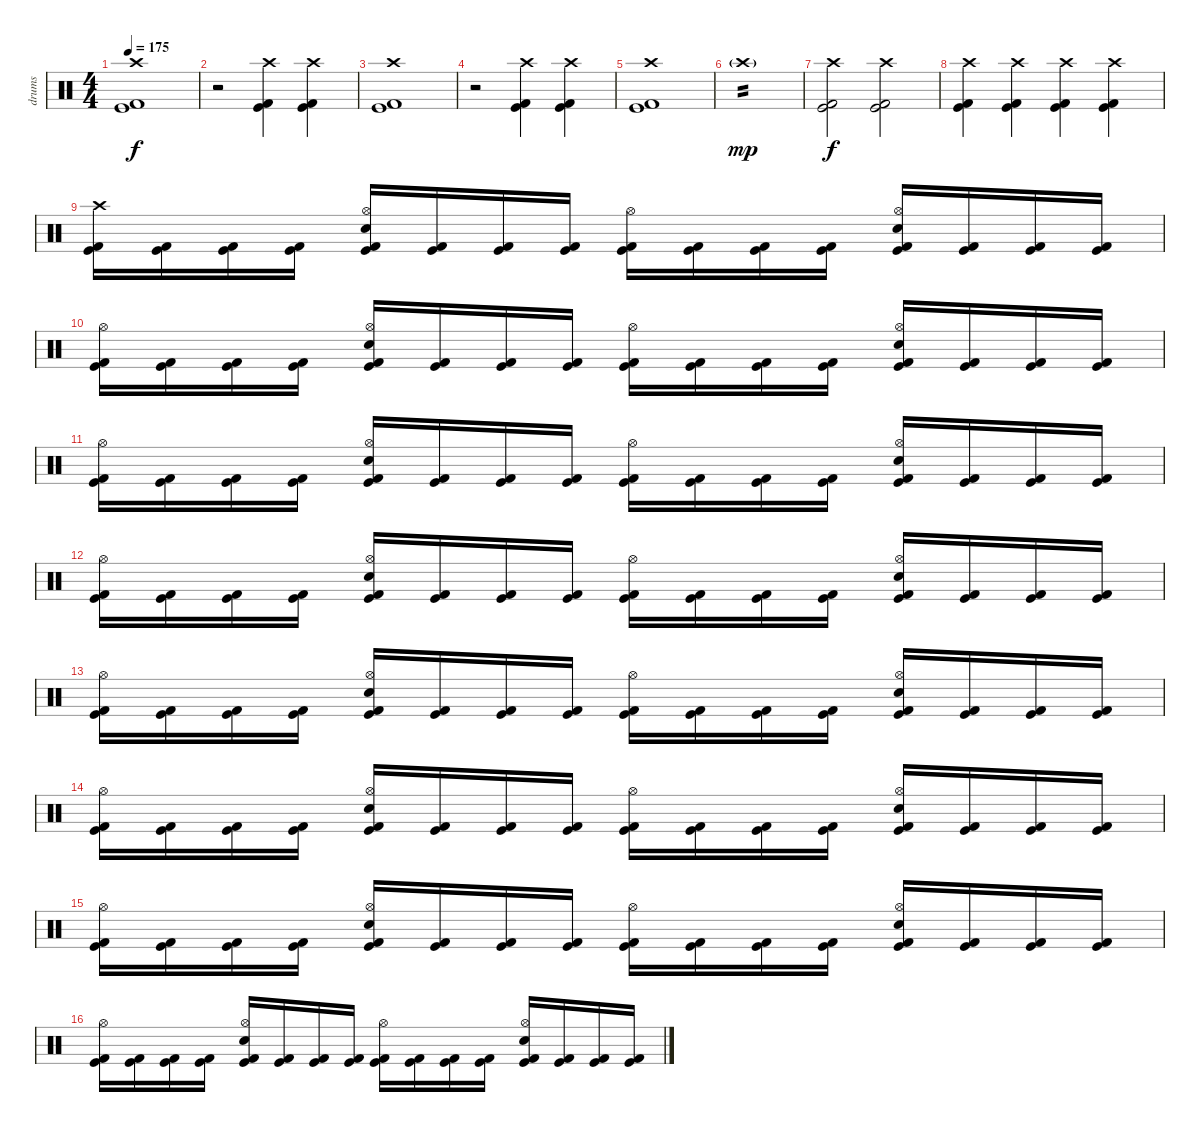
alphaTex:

\track ("drums" "drums") {instrument percussion}
\staff {score}
\articulation defaults
\ts (4 4)
\tempo 175
\clef neutral
\ks c
("Crash high (hit)" "Kick (hit)" "Kick (hit) 2").1{dy f} |
r.2 ("Crash high (hit)" "Kick (hit)" "Kick (hit) 2").4 ("Crash high (hit)" "Kick (hit)" "Kick (hit) 2").4 |
("Crash high (hit)" "Kick (hit)" "Kick (hit) 2").1 |
r.2 ("Crash high (hit)" "Kick (hit)" "Kick (hit) 2").4 ("Crash high (hit)" "Kick (hit)" "Kick (hit) 2").4 |
("Crash high (hit)" "Kick (hit)" "Kick (hit) 2").1 |
"Crash high (hit)"{g}.1{tp 2 dy mp} |
("Crash high (hit)" "Kick (hit)" "Kick (hit) 2").2{dy f} ("Crash high (hit)" "Kick (hit)" "Kick (hit) 2").2 |
("Crash high (hit)" "Kick (hit)" "Kick (hit) 2").4 ("Crash high (hit)" "Kick (hit)" "Kick (hit) 2").4 ("Crash high (hit)" "Kick (hit)" "Kick (hit) 2").4 ("Crash high (hit)" "Kick (hit)" "Kick (hit) 2").4 |
("Crash high (hit)" "Kick (hit)" "Kick (hit) 2").16 ("Kick (hit)" "Kick (hit) 2").16 ("Kick (hit)" "Kick (hit) 2").16 ("Kick (hit)" "Kick (hit) 2").16 ("Hi-Hat (open)" "Electric Snare (hit)" "Kick (hit)" "Kick (hit) 2").16 ("Kick (hit)" "Kick (hit) 2").16 ("Kick (hit)" "Kick (hit) 2").16 ("Kick (hit)" "Kick (hit) 2").16 ("Hi-Hat (open)" "Kick (hit)" "Kick (hit) 2").16 ("Kick (hit)" "Kick (hit) 2").16 ("Kick (hit)" "Kick (hit) 2").16 ("Kick (hit)" "Kick (hit) 2").16 ("Hi-Hat (open)" "Electric Snare (hit)" "Kick (hit)" "Kick (hit) 2").16 ("Kick (hit)" "Kick (hit) 2").16 ("Kick (hit)" "Kick (hit) 2").16 ("Kick (hit)" "Kick (hit) 2").16 |
("Hi-Hat (open)" "Kick (hit)" "Kick (hit) 2").16 ("Kick (hit)" "Kick (hit) 2").16 ("Kick (hit)" "Kick (hit) 2").16 ("Kick (hit)" "Kick (hit) 2").16 ("Hi-Hat (open)" "Electric Snare (hit)" "Kick (hit)" "Kick (hit) 2").16 ("Kick (hit)" "Kick (hit) 2").16 ("Kick (hit)" "Kick (hit) 2").16 ("Kick (hit)" "Kick (hit) 2").16 ("Hi-Hat (open)" "Kick (hit)" "Kick (hit) 2").16 ("Kick (hit)" "Kick (hit) 2").16 ("Kick (hit)" "Kick (hit) 2").16 ("Kick (hit)" "Kick (hit) 2").16 ("Hi-Hat (open)" "Electric Snare (hit)" "Kick (hit)" "Kick (hit) 2").16 ("Kick (hit)" "Kick (hit) 2").16 ("Kick (hit)" "Kick (hit) 2").16 ("Kick (hit)" "Kick (hit) 2").16 |
("Hi-Hat (open)" "Kick (hit)" "Kick (hit) 2").16 ("Kick (hit)" "Kick (hit) 2").16 ("Kick (hit)" "Kick (hit) 2").16 ("Kick (hit)" "Kick (hit) 2").16 ("Hi-Hat (open)" "Electric Snare (hit)" "Kick (hit)" "Kick (hit) 2").16 ("Kick (hit)" "Kick (hit) 2").16 ("Kick (hit)" "Kick (hit) 2").16 ("Kick (hit)" "Kick (hit) 2").16 ("Hi-Hat (open)" "Kick (hit)" "Kick (hit) 2").16 ("Kick (hit)" "Kick (hit) 2").16 ("Kick (hit)" "Kick (hit) 2").16 ("Kick (hit)" "Kick (hit) 2").16 ("Hi-Hat (open)" "Electric Snare (hit)" "Kick (hit)" "Kick (hit) 2").16 ("Kick (hit)" "Kick (hit) 2").16 ("Kick (hit)" "Kick (hit) 2").16 ("Kick (hit)" "Kick (hit) 2").16 |
("Hi-Hat (open)" "Kick (hit)" "Kick (hit) 2").16 ("Kick (hit)" "Kick (hit) 2").16 ("Kick (hit)" "Kick (hit) 2").16 ("Kick (hit)" "Kick (hit) 2").16 ("Hi-Hat (open)" "Electric Snare (hit)" "Kick (hit)" "Kick (hit) 2").16 ("Kick (hit)" "Kick (hit) 2").16 ("Kick (hit)" "Kick (hit) 2").16 ("Kick (hit)" "Kick (hit) 2").16 ("Hi-Hat (open)" "Kick (hit)" "Kick (hit) 2").16 ("Kick (hit)" "Kick (hit) 2").16 ("Kick (hit)" "Kick (hit) 2").16 ("Kick (hit)" "Kick (hit) 2").16 ("Hi-Hat (open)" "Electric Snare (hit)" "Kick (hit)" "Kick (hit) 2").16 ("Kick (hit)" "Kick (hit) 2").16 ("Kick (hit)" "Kick (hit) 2").16 ("Kick (hit)" "Kick (hit) 2").16 |
("Hi-Hat (open)" "Kick (hit)" "Kick (hit) 2").16 ("Kick (hit)" "Kick (hit) 2").16 ("Kick (hit)" "Kick (hit) 2").16 ("Kick (hit)" "Kick (hit) 2").16 ("Hi-Hat (open)" "Electric Snare (hit)" "Kick (hit)" "Kick (hit) 2").16 ("Kick (hit)" "Kick (hit) 2").16 ("Kick (hit)" "Kick (hit) 2").16 ("Kick (hit)" "Kick (hit) 2").16 ("Hi-Hat (open)" "Kick (hit)" "Kick (hit) 2").16 ("Kick (hit)" "Kick (hit) 2").16 ("Kick (hit)" "Kick (hit) 2").16 ("Kick (hit)" "Kick (hit) 2").16 ("Hi-Hat (open)" "Electric Snare (hit)" "Kick (hit)" "Kick (hit) 2").16 ("Kick (hit)" "Kick (hit) 2").16 ("Kick (hit)" "Kick (hit) 2").16 ("Kick (hit)" "Kick (hit) 2").16 |
("Hi-Hat (open)" "Kick (hit)" "Kick (hit) 2").16 ("Kick (hit)" "Kick (hit) 2").16 ("Kick (hit)" "Kick (hit) 2").16 ("Kick (hit)" "Kick (hit) 2").16 ("Hi-Hat (open)" "Electric Snare (hit)" "Kick (hit)" "Kick (hit) 2").16 ("Kick (hit)" "Kick (hit) 2").16 ("Kick (hit)" "Kick (hit) 2").16 ("Kick (hit)" "Kick (hit) 2").16 ("Hi-Hat (open)" "Kick (hit)" "Kick (hit) 2").16 ("Kick (hit)" "Kick (hit) 2").16 ("Kick (hit)" "Kick (hit) 2").16 ("Kick (hit)" "Kick (hit) 2").16 ("Hi-Hat (open)" "Electric Snare (hit)" "Kick (hit)" "Kick (hit) 2").16 ("Kick (hit)" "Kick (hit) 2").16 ("Kick (hit)" "Kick (hit) 2").16 ("Kick (hit)" "Kick (hit) 2").16 |
("Hi-Hat (open)" "Kick (hit)" "Kick (hit) 2").16 ("Kick (hit)" "Kick (hit) 2").16 ("Kick (hit)" "Kick (hit) 2").16 ("Kick (hit)" "Kick (hit) 2").16 ("Hi-Hat (open)" "Electric Snare (hit)" "Kick (hit)" "Kick (hit) 2").16 ("Kick (hit)" "Kick (hit) 2").16 ("Kick (hit)" "Kick (hit) 2").16 ("Kick (hit)" "Kick (hit) 2").16 ("Hi-Hat (open)" "Kick (hit)" "Kick (hit) 2").16 ("Kick (hit)" "Kick (hit) 2").16 ("Kick (hit)" "Kick (hit) 2").16 ("Kick (hit)" "Kick (hit) 2").16 ("Hi-Hat (open)" "Electric Snare (hit)" "Kick (hit)" "Kick (hit) 2").16 ("Kick (hit)" "Kick (hit) 2").16 ("Kick (hit)" "Kick (hit) 2").16 ("Kick (hit)" "Kick (hit) 2").16 |
("Hi-Hat (open)" "Kick (hit)" "Kick (hit) 2").16 ("Kick (hit)" "Kick (hit) 2").16 ("Kick (hit)" "Kick (hit) 2").16 ("Kick (hit)" "Kick (hit) 2").16 ("Hi-Hat (open)" "Electric Snare (hit)" "Kick (hit)" "Kick (hit) 2").16 ("Kick (hit)" "Kick (hit) 2").16 ("Kick (hit)" "Kick (hit) 2").16 ("Kick (hit)" "Kick (hit) 2").16 ("Hi-Hat (open)" "Kick (hit)" "Kick (hit) 2").16 ("Kick (hit)" "Kick (hit) 2").16 ("Kick (hit)" "Kick (hit) 2").16 ("Kick (hit)" "Kick (hit) 2").16 ("Hi-Hat (open)" "Electric Snare (hit)" "Kick (hit)" "Kick (hit) 2").16 ("Kick (hit)" "Kick (hit) 2").16 ("Kick (hit)" "Kick (hit) 2").16 ("Kick (hit)" "Kick (hit) 2").16
